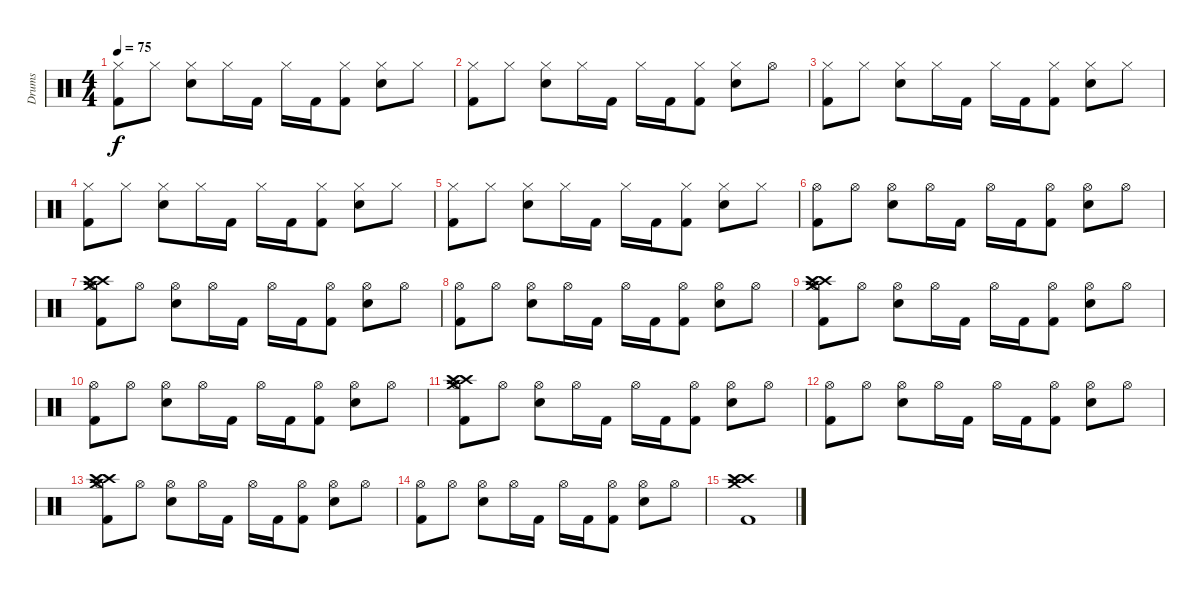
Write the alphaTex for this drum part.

\track ("Drums" "Drums") {instrument percussion}
\staff {score}
\articulation defaults
\ts (4 4)
\tempo 75
\clef neutral
\ks c
("Hi-Hat (closed)" "Kick (hit) 2").8{dy f} "Hi-Hat (closed)".8 ("Hi-Hat (closed)" "Electric Snare (hit)").8 "Hi-Hat (closed)".16 "Kick (hit) 2".16 "Hi-Hat (closed)".16 "Kick (hit) 2".16 ("Hi-Hat (closed)" "Kick (hit) 2").8 ("Hi-Hat (closed)" "Electric Snare (hit)").8 "Hi-Hat (closed)".8 |
("Hi-Hat (closed)" "Kick (hit) 2").8 "Hi-Hat (closed)".8 ("Hi-Hat (closed)" "Electric Snare (hit)").8 "Hi-Hat (closed)".16 "Kick (hit) 2".16 "Hi-Hat (closed)".16 "Kick (hit) 2".16 ("Hi-Hat (closed)" "Kick (hit) 2").8 ("Hi-Hat (closed)" "Electric Snare (hit)").8 "Hi-Hat (open)".8 |
("Hi-Hat (closed)" "Kick (hit) 2").8 "Hi-Hat (closed)".8 ("Hi-Hat (closed)" "Electric Snare (hit)").8 "Hi-Hat (closed)".16 "Kick (hit) 2".16 "Hi-Hat (closed)".16 "Kick (hit) 2".16 ("Hi-Hat (closed)" "Kick (hit) 2").8 ("Hi-Hat (closed)" "Electric Snare (hit)").8 "Hi-Hat (closed)".8 |
("Hi-Hat (closed)" "Kick (hit) 2").8 "Hi-Hat (closed)".8 ("Hi-Hat (closed)" "Electric Snare (hit)").8 "Hi-Hat (closed)".16 "Kick (hit) 2".16 "Hi-Hat (closed)".16 "Kick (hit) 2".16 ("Hi-Hat (closed)" "Kick (hit) 2").8 ("Hi-Hat (closed)" "Electric Snare (hit)").8 "Hi-Hat (closed)".8 |
("Hi-Hat (closed)" "Kick (hit) 2").8 "Hi-Hat (closed)".8 ("Hi-Hat (closed)" "Electric Snare (hit)").8 "Hi-Hat (closed)".16 "Kick (hit) 2".16 "Hi-Hat (closed)".16 "Kick (hit) 2".16 ("Hi-Hat (closed)" "Kick (hit) 2").8 ("Hi-Hat (closed)" "Electric Snare (hit)").8 "Hi-Hat (closed)".8 |
("Hi-Hat (open)" "Kick (hit) 2").8 "Hi-Hat (open)".8 ("Hi-Hat (open)" "Electric Snare (hit)").8 "Hi-Hat (open)".16 "Kick (hit) 2".16 "Hi-Hat (open)".16 "Kick (hit) 2".16 ("Hi-Hat (open)" "Kick (hit) 2").8 ("Hi-Hat (open)" "Electric Snare (hit)").8 "Hi-Hat (open)".8 |
("Crash high (hit)" "Crash medium (hit)" "Crash high (hit)" "Hi-Hat (open)" "Kick (hit) 2").8 "Hi-Hat (open)".8 ("Hi-Hat (open)" "Electric Snare (hit)").8 "Hi-Hat (open)".16 "Kick (hit) 2".16 "Hi-Hat (open)".16 "Kick (hit) 2".16 ("Hi-Hat (open)" "Kick (hit) 2").8 ("Hi-Hat (open)" "Electric Snare (hit)").8 "Hi-Hat (open)".8 |
("Hi-Hat (open)" "Kick (hit) 2").8 "Hi-Hat (open)".8 ("Hi-Hat (open)" "Electric Snare (hit)").8 "Hi-Hat (open)".16 "Kick (hit) 2".16 "Hi-Hat (open)".16 "Kick (hit) 2".16 ("Hi-Hat (open)" "Kick (hit) 2").8 ("Hi-Hat (open)" "Electric Snare (hit)").8 "Hi-Hat (open)".8 |
("Crash high (hit)" "Crash medium (hit)" "Crash high (hit)" "Hi-Hat (open)" "Kick (hit) 2").8 "Hi-Hat (open)".8 ("Hi-Hat (open)" "Electric Snare (hit)").8 "Hi-Hat (open)".16 "Kick (hit) 2".16 "Hi-Hat (open)".16 "Kick (hit) 2".16 ("Hi-Hat (open)" "Kick (hit) 2").8 ("Hi-Hat (open)" "Electric Snare (hit)").8 "Hi-Hat (open)".8 |
("Hi-Hat (open)" "Kick (hit) 2").8 "Hi-Hat (open)".8 ("Hi-Hat (open)" "Electric Snare (hit)").8 "Hi-Hat (open)".16 "Kick (hit) 2".16 "Hi-Hat (open)".16 "Kick (hit) 2".16 ("Hi-Hat (open)" "Kick (hit) 2").8 ("Hi-Hat (open)" "Electric Snare (hit)").8 "Hi-Hat (open)".8 |
("Crash high (hit)" "Crash medium (hit)" "Crash high (hit)" "Hi-Hat (open)" "Kick (hit) 2").8 "Hi-Hat (open)".8 ("Hi-Hat (open)" "Electric Snare (hit)").8 "Hi-Hat (open)".16 "Kick (hit) 2".16 "Hi-Hat (open)".16 "Kick (hit) 2".16 ("Hi-Hat (open)" "Kick (hit) 2").8 ("Hi-Hat (open)" "Electric Snare (hit)").8 "Hi-Hat (open)".8 |
("Hi-Hat (open)" "Kick (hit) 2").8 "Hi-Hat (open)".8 ("Hi-Hat (open)" "Electric Snare (hit)").8 "Hi-Hat (open)".16 "Kick (hit) 2".16 "Hi-Hat (open)".16 "Kick (hit) 2".16 ("Hi-Hat (open)" "Kick (hit) 2").8 ("Hi-Hat (open)" "Electric Snare (hit)").8 "Hi-Hat (open)".8 |
("Crash high (hit)" "Crash medium (hit)" "Crash high (hit)" "Hi-Hat (open)" "Kick (hit) 2").8 "Hi-Hat (open)".8 ("Hi-Hat (open)" "Electric Snare (hit)").8 "Hi-Hat (open)".16 "Kick (hit) 2".16 "Hi-Hat (open)".16 "Kick (hit) 2".16 ("Hi-Hat (open)" "Kick (hit) 2").8 ("Hi-Hat (open)" "Electric Snare (hit)").8 "Hi-Hat (open)".8 |
("Hi-Hat (open)" "Kick (hit) 2").8 "Hi-Hat (open)".8 ("Hi-Hat (open)" "Electric Snare (hit)").8 "Hi-Hat (open)".16 "Kick (hit) 2".16 "Hi-Hat (open)".16 "Kick (hit) 2".16 ("Hi-Hat (open)" "Kick (hit) 2").8 ("Hi-Hat (open)" "Electric Snare (hit)").8 "Hi-Hat (open)".8 |
("Crash high (hit)" "Crash high (hit)" "Crash medium (hit)" "Kick (hit) 2").1
